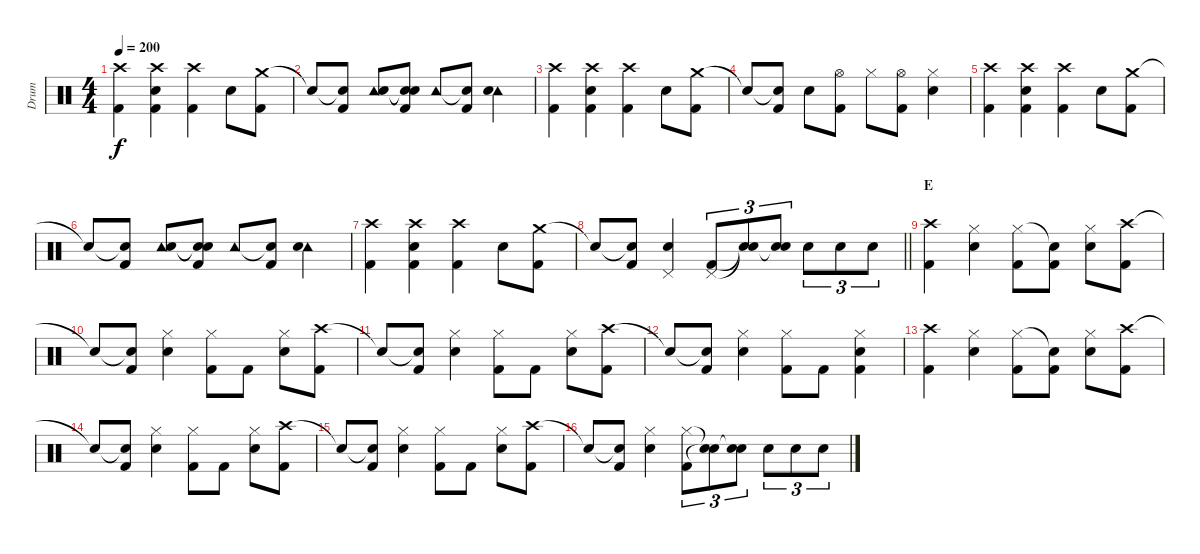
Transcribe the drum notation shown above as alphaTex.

\track ("Drum" "Drum") {instrument percussion}
\staff {score}
\articulation defaults
\ts (4 4)
\tempo 200
\clef neutral
\ks c
("Crash high (hit)" "Kick (hit) 2").4{dy f} ("Crash high (hit)" "Snare (hit) 2" "Kick (hit) 2").4 ("Crash high (hit)" "Kick (hit) 2").4 "Snare (hit) 2".8 ("Crash medium (hit)" "Kick (hit) 2").8 |
"Snare (hit)"{t}.8 ("Snare (hit)"{t} "Kick (hit) 2").8 ("Tambourine (hit)" "Snare (hit) 2").8 ("Snare (hit)"{t} "Snare (hit)"{t} "Kick (hit) 2").8 "Tambourine (hit)".8 ("Snare (hit)"{t} "Kick (hit) 2").8 ("Tambourine (hit)" "Snare (hit) 2").4 |
("Crash high (hit)" "Kick (hit) 2").4 ("Crash high (hit)" "Snare (hit) 2" "Kick (hit) 2").4 ("Crash high (hit)" "Kick (hit) 2").4 "Snare (hit) 2".8 ("Crash medium (hit)" "Kick (hit) 2").8 |
"Snare (hit)"{t}.8 ("Snare (hit)"{t} "Kick (hit) 2").8 "Snare (hit) 2".8 ("Hi-Hat (open)" "Kick (hit) 2").8 "Hi-Hat (closed)".8 ("Hi-Hat (open)" "Kick (hit) 2").8 ("Hi-Hat (closed)" "Snare (hit) 2").4 |
("Crash high (hit)" "Kick (hit) 2").4 ("Crash high (hit)" "Snare (hit) 2" "Kick (hit) 2").4 ("Crash high (hit)" "Kick (hit) 2").4 "Snare (hit) 2".8 ("Crash medium (hit)" "Kick (hit) 2").8 |
"Snare (hit)"{t}.8 ("Snare (hit)"{t} "Kick (hit) 2").8 ("Tambourine (hit)" "Snare (hit) 2").8 ("Snare (hit)"{t} "Snare (hit)"{t} "Kick (hit) 2").8 "Tambourine (hit)".8 ("Snare (hit)"{t} "Kick (hit) 2").8 ("Tambourine (hit)" "Snare (hit) 2").4 |
("Crash high (hit)" "Kick (hit) 2").4 ("Crash high (hit)" "Snare (hit) 2" "Kick (hit) 2").4 ("Crash high (hit)" "Kick (hit) 2").4 "Snare (hit) 2".8 ("Crash medium (hit)" "Kick (hit) 2").8 |
\barLineRight lightlight "Snare (hit)"{t}.8
("Snare (hit)"{t} "Kick (hit) 2").8 ("Snare (hit) 2" "Pedal Hi-Hat (hit)").4 ("Pedal Hi-Hat (hit)" "Kick (hit) 2").8{tu (3 2)} ("Snare (hit)"{t} "Snare (hit)"{t}).8{tu (3 2)} ("Snare (hit) 2" "Snare (hit)"{t}).8{tu (3 2)} "Snare (hit) 2".8{tu (3 2)} "Snare (hit) 2".8{tu (3 2)} "Snare (hit) 2".8{tu (3 2)} |
\section ("" "E")
("Crash high (hit)" "Kick (hit) 2").4 ("Hi-Hat (closed)" "Snare (hit) 2").4 ("Hi-Hat (closed)" "Kick (hit) 2").8 ("Snare (hit)"{t} "Kick (hit) 2").8 ("Hi-Hat (closed)" "Snare (hit) 2").8 ("Crash high (hit)" "Kick (hit) 2").8 |
"Snare (hit)"{t}.8 ("Snare (hit)"{t} "Kick (hit) 2").8 ("Hi-Hat (closed)" "Snare (hit) 2").4 ("Hi-Hat (closed)" "Kick (hit) 2").8 "Kick (hit) 2".8 ("Hi-Hat (closed)" "Snare (hit) 2").8 ("Crash high (hit)" "Kick (hit) 2").8 |
"Snare (hit)"{t}.8 ("Snare (hit)"{t} "Kick (hit) 2").8 ("Hi-Hat (closed)" "Snare (hit) 2").4 ("Hi-Hat (closed)" "Kick (hit) 2").8 "Kick (hit) 2".8 ("Hi-Hat (closed)" "Snare (hit) 2").8 ("Crash high (hit)" "Kick (hit) 2").8 |
"Snare (hit)"{t}.8 ("Snare (hit)"{t} "Kick (hit) 2").8 ("Hi-Hat (closed)" "Snare (hit) 2").4 ("Hi-Hat (closed)" "Kick (hit) 2").8 "Kick (hit) 2".8 ("Hi-Hat (closed)" "Snare (hit) 2" "Kick (hit) 2").4 |
("Crash high (hit)" "Kick (hit) 2").4 ("Hi-Hat (closed)" "Snare (hit) 2").4 ("Hi-Hat (closed)" "Kick (hit) 2").8 ("Snare (hit)"{t} "Kick (hit) 2").8 ("Hi-Hat (closed)" "Snare (hit) 2").8 ("Crash high (hit)" "Kick (hit) 2").8 |
"Snare (hit)"{t}.8 ("Snare (hit)"{t} "Kick (hit) 2").8 ("Hi-Hat (closed)" "Snare (hit) 2").4 ("Hi-Hat (closed)" "Kick (hit) 2").8 "Kick (hit) 2".8 ("Hi-Hat (closed)" "Snare (hit) 2").8 ("Crash high (hit)" "Kick (hit) 2").8 |
"Snare (hit)"{t}.8 ("Snare (hit)"{t} "Kick (hit) 2").8 ("Hi-Hat (closed)" "Snare (hit) 2").4 ("Hi-Hat (closed)" "Kick (hit) 2").8 "Kick (hit) 2".8 ("Hi-Hat (closed)" "Snare (hit) 2").8 ("Crash high (hit)" "Kick (hit) 2").8 |
"Snare (hit)"{t}.8 ("Snare (hit)"{t} "Kick (hit) 2").8 ("Hi-Hat (closed)" "Snare (hit) 2").4 ("Hi-Hat (closed)" "Kick (hit) 2").8{tu (3 2)} ("Snare (hit)"{t} "Snare (hit)"{t}).8{tu (3 2)} ("Snare (hit) 2" "Snare (hit)"{t}).8{tu (3 2)} "Snare (hit) 2".8{tu (3 2)} "Snare (hit) 2".8{tu (3 2)} "Snare (hit) 2".8{tu (3 2)}
